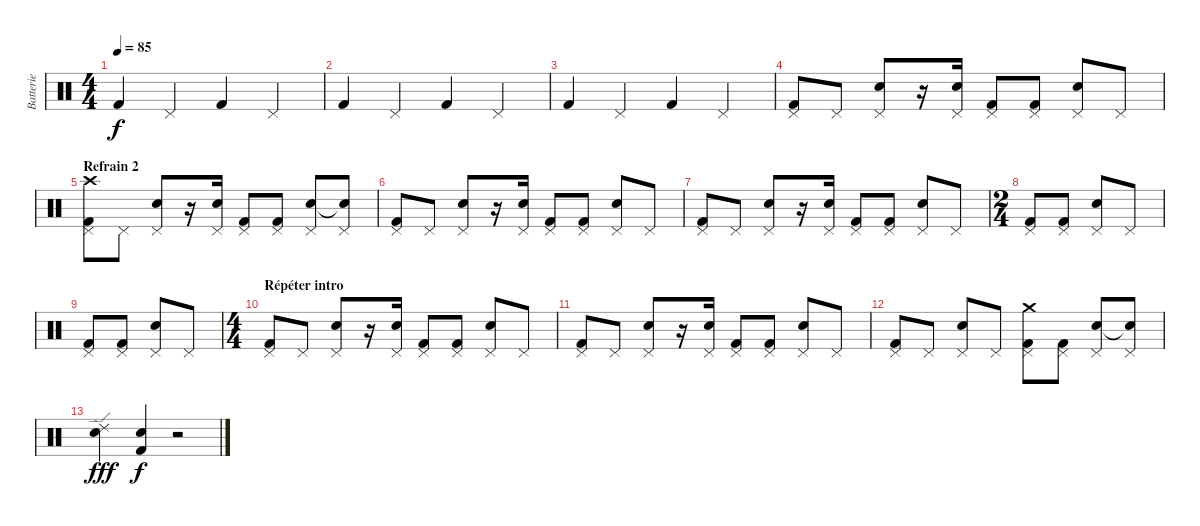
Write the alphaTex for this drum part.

\track ("Batterie" "Batterie") {instrument percussion}
\staff {score}
\articulation defaults
\ts (4 4)
\tempo 85
\clef neutral
\ks c "Kick (hit) 2".4{dy f} "Pedal Hi-Hat (hit)".4 "Kick (hit) 2".4 "Pedal Hi-Hat (hit)".4
|
"Kick (hit) 2".4 "Pedal Hi-Hat (hit)".4 "Kick (hit) 2".4 "Pedal Hi-Hat (hit)".4 |
"Kick (hit) 2".4 "Pedal Hi-Hat (hit)".4 "Kick (hit) 2".4 "Pedal Hi-Hat (hit)".4 |
("Pedal Hi-Hat (hit)" "Kick (hit) 2").8 "Pedal Hi-Hat (hit)".8 ("Pedal Hi-Hat (hit)" "Electric Snare (hit)").8 r.16 ("Pedal Hi-Hat (hit)" "Electric Snare (hit)").16 ("Pedal Hi-Hat (hit)" "Kick (hit) 2").8 ("Pedal Hi-Hat (hit)" "Kick (hit) 2").8 ("Pedal Hi-Hat (hit)" "Electric Snare (hit)").8 "Pedal Hi-Hat (hit)".8 |
\section ("" "Refrain 2")
("Pedal Hi-Hat (hit)" "Crash high (hit)" "Kick (hit) 2").8 "Pedal Hi-Hat (hit)".8 ("Pedal Hi-Hat (hit)" "Electric Snare (hit)").8 r.16 ("Pedal Hi-Hat (hit)" "Electric Snare (hit)").16 ("Pedal Hi-Hat (hit)" "Kick (hit) 2").8 ("Pedal Hi-Hat (hit)" "Kick (hit) 2").8 ("Pedal Hi-Hat (hit)" "Electric Snare (hit)").8 ("Pedal Hi-Hat (hit)" "Snare (hit)"{t}).8 |
("Pedal Hi-Hat (hit)" "Kick (hit) 2").8 "Pedal Hi-Hat (hit)".8 ("Pedal Hi-Hat (hit)" "Electric Snare (hit)").8 r.16 ("Pedal Hi-Hat (hit)" "Electric Snare (hit)").16 ("Pedal Hi-Hat (hit)" "Kick (hit) 2").8 ("Pedal Hi-Hat (hit)" "Kick (hit) 2").8 ("Pedal Hi-Hat (hit)" "Electric Snare (hit)").8 "Pedal Hi-Hat (hit)".8 |
("Pedal Hi-Hat (hit)" "Kick (hit) 2").8 "Pedal Hi-Hat (hit)".8 ("Pedal Hi-Hat (hit)" "Electric Snare (hit)").8 r.16 ("Pedal Hi-Hat (hit)" "Electric Snare (hit)").16 ("Pedal Hi-Hat (hit)" "Kick (hit) 2").8 ("Pedal Hi-Hat (hit)" "Kick (hit) 2").8 ("Pedal Hi-Hat (hit)" "Electric Snare (hit)").8 "Pedal Hi-Hat (hit)".8 |
\ts (2 4)
("Pedal Hi-Hat (hit)" "Kick (hit) 2").8 ("Pedal Hi-Hat (hit)" "Kick (hit) 2").8 ("Pedal Hi-Hat (hit)" "Electric Snare (hit)").8 "Pedal Hi-Hat (hit)".8 |
("Pedal Hi-Hat (hit)" "Kick (hit) 2").8 ("Pedal Hi-Hat (hit)" "Kick (hit) 2").8 ("Pedal Hi-Hat (hit)" "Electric Snare (hit)").8 "Pedal Hi-Hat (hit)".8 |
\ts (4 4)
\section ("" "Répéter intro")
("Pedal Hi-Hat (hit)" "Kick (hit) 2").8 "Pedal Hi-Hat (hit)".8 ("Pedal Hi-Hat (hit)" "Electric Snare (hit)").8 r.16 ("Pedal Hi-Hat (hit)" "Electric Snare (hit)").16 ("Pedal Hi-Hat (hit)" "Kick (hit) 2").8 ("Pedal Hi-Hat (hit)" "Kick (hit) 2").8 ("Pedal Hi-Hat (hit)" "Electric Snare (hit)").8 "Pedal Hi-Hat (hit)".8 |
("Pedal Hi-Hat (hit)" "Kick (hit) 2").8 "Pedal Hi-Hat (hit)".8 ("Pedal Hi-Hat (hit)" "Electric Snare (hit)").8 r.16 ("Pedal Hi-Hat (hit)" "Electric Snare (hit)").16 ("Pedal Hi-Hat (hit)" "Kick (hit) 2").8 ("Pedal Hi-Hat (hit)" "Kick (hit) 2").8 ("Pedal Hi-Hat (hit)" "Electric Snare (hit)").8 "Pedal Hi-Hat (hit)".8 |
("Pedal Hi-Hat (hit)" "Kick (hit) 2").8 "Pedal Hi-Hat (hit)".8 ("Pedal Hi-Hat (hit)" "Electric Snare (hit)").8 "Pedal Hi-Hat (hit)".8 ("Pedal Hi-Hat (hit)" "Crash medium (hit)" "Kick (hit) 2").8 ("Pedal Hi-Hat (hit)" "Kick (hit) 2").8 ("Pedal Hi-Hat (hit)" "Electric Snare (hit)").8 ("Pedal Hi-Hat (hit)" "Snare (hit)"{t}).8 |
("Ride (edge) 2" "Electric Snare (hit)").4{dy fff} ("Kick (hit) 2" "Electric Snare (hit)").4{dy f} r.2
